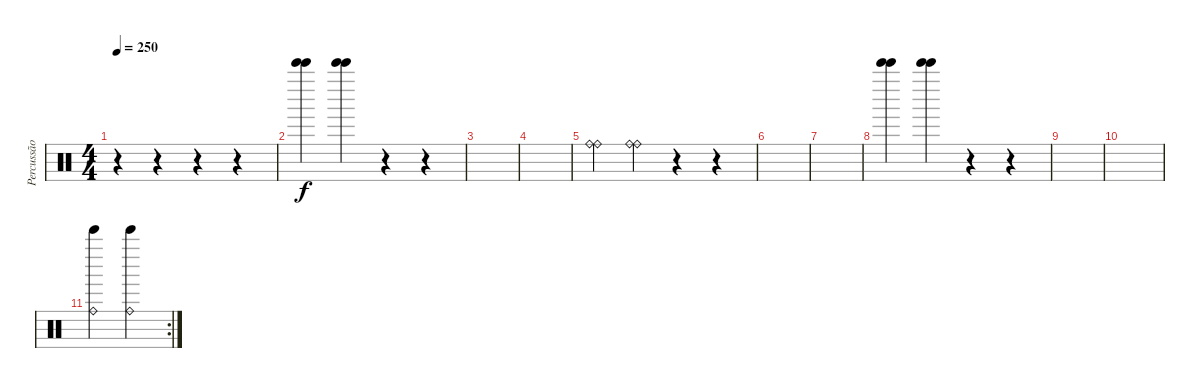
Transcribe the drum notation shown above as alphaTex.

\track ("Percussão" "Percussão") {instrument percussion}
\staff {score}
\articulation defaults
\ts (4 4)
\tempo 250
\clef neutral
\ks c
r.4{dy f} r.4 r.4 r.4 |
("Bell Tree (hit)" "Bell Tree (hit)").4 ("Bell Tree (hit)" "Bell Tree (hit)").4 r.4 r.4 |
|
|
("Ride (bell)" "Ride (bell)").4 ("Ride (bell)" "Ride (bell)").4 r.4 r.4 |
|
|
("Bell Tree (hit)" "Bell Tree (hit)").4 ("Bell Tree (hit)" "Bell Tree (hit)").4 r.4 r.4 |
|
|
\rc 2
("Bell Tree (hit)" "Ride (bell)").4 ("Ride (bell)" "Bell Tree (hit)").4
